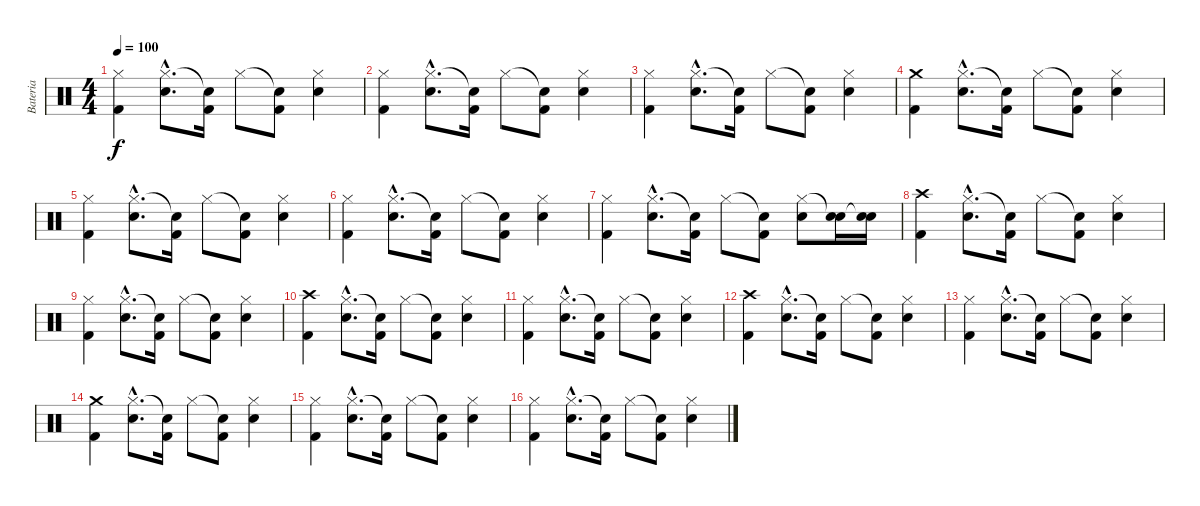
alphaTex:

\track ("Bateria" "Bateria") {instrument percussion}
\staff {score}
\articulation defaults
\ts (4 4)
\tempo 100
\clef neutral
\ks c
("Hi-Hat (closed)" "Kick (hit) 2").4{dy f} ("Hi-Hat (closed)"{hac} "Electric Snare (hit)"{hac}).8{d} ("Snare (hit)"{t} "Kick (hit) 2").16 "Hi-Hat (closed)".8 ("Snare (hit)"{t} "Kick (hit) 2").8 ("Hi-Hat (closed)" "Electric Snare (hit)").4 |
("Hi-Hat (closed)" "Kick (hit) 2").4 ("Hi-Hat (closed)"{hac} "Electric Snare (hit)"{hac}).8{d} ("Snare (hit)"{t} "Kick (hit) 2").16 "Hi-Hat (closed)".8 ("Snare (hit)"{t} "Kick (hit) 2").8 ("Hi-Hat (closed)" "Electric Snare (hit)").4 |
("Hi-Hat (closed)" "Kick (hit) 2").4 ("Hi-Hat (closed)"{hac} "Electric Snare (hit)"{hac}).8{d} ("Snare (hit)"{t} "Kick (hit) 2").16 "Hi-Hat (closed)".8 ("Snare (hit)"{t} "Kick (hit) 2").8 ("Hi-Hat (closed)" "Electric Snare (hit)").4 |
("Crash medium (hit)" "Kick (hit) 2").4 ("Hi-Hat (closed)"{hac} "Electric Snare (hit)"{hac}).8{d} ("Snare (hit)"{t} "Kick (hit) 2").16 "Hi-Hat (closed)".8 ("Snare (hit)"{t} "Kick (hit) 2").8 ("Hi-Hat (closed)" "Electric Snare (hit)").4 |
("Hi-Hat (closed)" "Kick (hit) 2").4 ("Hi-Hat (closed)"{hac} "Electric Snare (hit)"{hac}).8{d} ("Snare (hit)"{t} "Kick (hit) 2").16 "Hi-Hat (closed)".8 ("Snare (hit)"{t} "Kick (hit) 2").8 ("Hi-Hat (closed)" "Electric Snare (hit)").4 |
("Hi-Hat (closed)" "Kick (hit) 2").4 ("Hi-Hat (closed)"{hac} "Electric Snare (hit)"{hac}).8{d} ("Snare (hit)"{t} "Kick (hit) 2").16 "Hi-Hat (closed)".8 ("Snare (hit)"{t} "Kick (hit) 2").8 ("Hi-Hat (closed)" "Electric Snare (hit)").4 |
("Hi-Hat (closed)" "Kick (hit) 2").4 ("Hi-Hat (closed)"{hac} "Electric Snare (hit)"{hac}).8{d} ("Snare (hit)"{t} "Kick (hit) 2").16 "Hi-Hat (closed)".8 ("Snare (hit)"{t} "Kick (hit) 2").8 ("Hi-Hat (closed)" "Electric Snare (hit)").8 ("Snare (hit)"{t} "Electric Snare (hit)").16 ("Snare (hit)"{t} "Electric Snare (hit)").16 |
("Crash high (hit)" "Kick (hit) 2").4 ("Hi-Hat (closed)"{hac} "Electric Snare (hit)"{hac}).8{d} ("Snare (hit)"{t} "Kick (hit) 2").16 "Hi-Hat (closed)".8 ("Snare (hit)"{t} "Kick (hit) 2").8 ("Hi-Hat (closed)" "Electric Snare (hit)").4 |
("Hi-Hat (closed)" "Kick (hit) 2").4 ("Hi-Hat (closed)"{hac} "Electric Snare (hit)"{hac}).8{d} ("Snare (hit)"{t} "Kick (hit) 2").16 "Hi-Hat (closed)".8 ("Snare (hit)"{t} "Kick (hit) 2").8 ("Hi-Hat (closed)" "Electric Snare (hit)").4 |
("Crash high (hit)" "Kick (hit) 2").4 ("Hi-Hat (closed)"{hac} "Electric Snare (hit)"{hac}).8{d} ("Snare (hit)"{t} "Kick (hit) 2").16 "Hi-Hat (closed)".8 ("Snare (hit)"{t} "Kick (hit) 2").8 ("Hi-Hat (closed)" "Electric Snare (hit)").4 |
("Hi-Hat (closed)" "Kick (hit) 2").4 ("Hi-Hat (closed)"{hac} "Electric Snare (hit)"{hac}).8{d} ("Snare (hit)"{t} "Kick (hit) 2").16 "Hi-Hat (closed)".8 ("Snare (hit)"{t} "Kick (hit) 2").8 ("Hi-Hat (closed)" "Electric Snare (hit)").4 |
("Crash high (hit)" "Kick (hit) 2").4 ("Hi-Hat (closed)"{hac} "Electric Snare (hit)"{hac}).8{d} ("Snare (hit)"{t} "Kick (hit) 2").16 "Hi-Hat (closed)".8 ("Snare (hit)"{t} "Kick (hit) 2").8 ("Hi-Hat (closed)" "Electric Snare (hit)").4 |
("Hi-Hat (closed)" "Kick (hit) 2").4 ("Hi-Hat (closed)"{hac} "Electric Snare (hit)"{hac}).8{d} ("Snare (hit)"{t} "Kick (hit) 2").16 "Hi-Hat (closed)".8 ("Snare (hit)"{t} "Kick (hit) 2").8 ("Hi-Hat (closed)" "Electric Snare (hit)").4 |
("Crash medium (hit)" "Kick (hit) 2").4 ("Hi-Hat (closed)"{hac} "Electric Snare (hit)"{hac}).8{d} ("Snare (hit)"{t} "Kick (hit) 2").16 "Hi-Hat (closed)".8 ("Snare (hit)"{t} "Kick (hit) 2").8 ("Hi-Hat (closed)" "Electric Snare (hit)").4 |
("Hi-Hat (closed)" "Kick (hit) 2").4 ("Hi-Hat (closed)"{hac} "Electric Snare (hit)"{hac}).8{d} ("Snare (hit)"{t} "Kick (hit) 2").16 "Hi-Hat (closed)".8 ("Snare (hit)"{t} "Kick (hit) 2").8 ("Hi-Hat (closed)" "Electric Snare (hit)").4 |
("Hi-Hat (closed)" "Kick (hit) 2").4 ("Hi-Hat (closed)"{hac} "Electric Snare (hit)"{hac}).8{d} ("Snare (hit)"{t} "Kick (hit) 2").16 "Hi-Hat (closed)".8 ("Snare (hit)"{t} "Kick (hit) 2").8 ("Hi-Hat (closed)" "Electric Snare (hit)").4
